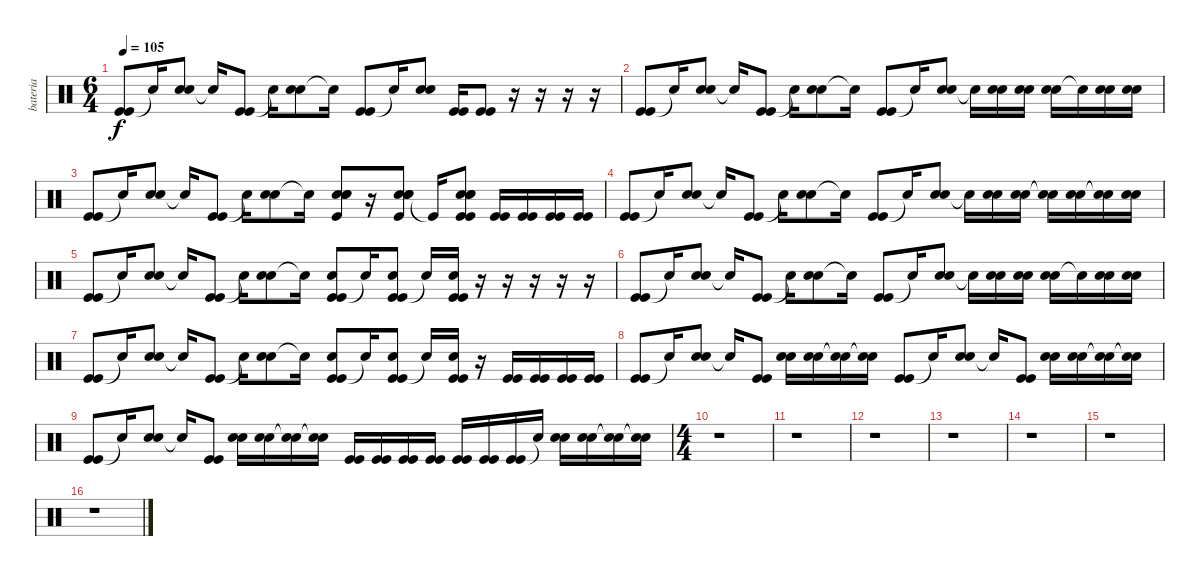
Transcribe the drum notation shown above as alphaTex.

\track ("bateria" "bateria") {instrument percussion}
\staff {score}
\articulation defaults
\ts (6 4)
\tempo 105
\clef neutral
\ks c
("Kick (hit)" "Kick (hit)").8{dy f} "Snare (hit)"{t}.16 ("Snare (hit) 2" "Snare (hit) 2").8 "Snare (hit)"{t}.16 ("Kick (hit)" "Kick (hit)").8 "Snare (hit)"{t}.16 ("Snare (hit) 2" "Snare (hit) 2").8 "Snare (hit)"{t}.16 ("Kick (hit)" "Kick (hit)").8 "Snare (hit)"{t}.16 ("Snare (hit) 2" "Snare (hit) 2").8 ("Kick (hit)" "Kick (hit)").16 ("Kick (hit)" "Kick (hit)").8 r.16 r.16 r.16 r.16 |
("Kick (hit)" "Kick (hit)").8 "Snare (hit)"{t}.16 ("Snare (hit) 2" "Snare (hit) 2").8 "Snare (hit)"{t}.16 ("Kick (hit)" "Kick (hit)").8 "Snare (hit)"{t}.16 ("Snare (hit) 2" "Snare (hit) 2").8 "Snare (hit)"{t}.16 ("Kick (hit)" "Kick (hit)").8 "Snare (hit)"{t}.16 ("Snare (hit) 2" "Snare (hit) 2").8 "Snare (hit)"{t}.16 ("Snare (hit) 2" "Snare (hit) 2").16 ("Snare (hit) 2" "Snare (hit) 2").16 ("Snare (hit) 2" "Snare (hit) 2").16 "Snare (hit)"{t}.16 ("Snare (hit) 2" "Snare (hit) 2").16 ("Snare (hit) 2" "Snare (hit) 2").16 |
("Kick (hit)" "Kick (hit)").8 "Snare (hit)"{t}.16 ("Snare (hit) 2" "Snare (hit) 2").8 "Snare (hit)"{t}.16 ("Kick (hit)" "Kick (hit)").8 "Snare (hit)"{t}.16 ("Snare (hit) 2" "Snare (hit) 2").8 "Snare (hit)"{t}.16 ("Snare (hit) 2" "Snare (hit) 2" "Kick (hit)" "Snare (hit) 2").8 r.16 ("Snare (hit) 2" "Snare (hit) 2" "Kick (hit)" "Snare (hit) 2").8 "Kick (hit)"{t}.16 ("Snare (hit) 2" "Snare (hit) 2" "Kick (hit)" "Kick (hit)" "Snare (hit) 2").8 ("Kick (hit)" "Kick (hit)").16 ("Kick (hit)" "Kick (hit)").16 ("Kick (hit)" "Kick (hit)").16 ("Kick (hit)" "Kick (hit)").16 |
("Kick (hit)" "Kick (hit)").8 "Snare (hit)"{t}.16 ("Snare (hit) 2" "Snare (hit) 2").8 "Snare (hit)"{t}.16 ("Kick (hit)" "Kick (hit)").8 "Snare (hit)"{t}.16 ("Snare (hit) 2" "Snare (hit) 2").8 "Snare (hit)"{t}.16 ("Kick (hit)" "Kick (hit)").8 "Snare (hit)"{t}.16 ("Snare (hit) 2" "Snare (hit) 2").8 "Snare (hit)"{t}.16 ("Snare (hit) 2" "Snare (hit) 2").16 ("Snare (hit) 2" "Snare (hit) 2").16 ("Snare (hit) 2"{t} "Snare (hit) 2"{t}).16 ("Snare (hit) 2" "Snare (hit) 2").16 ("Snare (hit) 2"{t} "Snare (hit) 2"{t}).16 ("Snare (hit) 2" "Snare (hit) 2").16 |
("Kick (hit)" "Kick (hit)").8 "Snare (hit)"{t}.16 ("Snare (hit) 2" "Snare (hit) 2").8 "Snare (hit)"{t}.16 ("Kick (hit)" "Kick (hit)").8 "Snare (hit)"{t}.16 ("Snare (hit) 2" "Snare (hit) 2").8 "Snare (hit)"{t}.16 ("Kick (hit)" "Kick (hit)" "Snare (hit) 2").8 "Snare (hit)"{t}.16 ("Kick (hit)" "Kick (hit)" "Snare (hit) 2").8 "Snare (hit)"{t}.16 ("Kick (hit)" "Kick (hit)" "Snare (hit) 2").16 r.16 r.16 r.16 r.16 r.16 |
("Kick (hit)" "Kick (hit)").8 "Snare (hit)"{t}.16 ("Snare (hit) 2" "Snare (hit) 2").8 "Snare (hit)"{t}.16 ("Kick (hit)" "Kick (hit)").8 "Snare (hit)"{t}.16 ("Snare (hit) 2" "Snare (hit) 2").8 "Snare (hit)"{t}.16 ("Kick (hit)" "Kick (hit)").8 "Snare (hit)"{t}.16 ("Snare (hit) 2" "Snare (hit) 2").8 "Snare (hit)"{t}.16 ("Snare (hit) 2" "Snare (hit) 2").16 ("Snare (hit) 2" "Snare (hit) 2").16 ("Snare (hit) 2" "Snare (hit) 2").16 "Snare (hit)"{t}.16 ("Snare (hit) 2" "Snare (hit) 2").16 ("Snare (hit) 2" "Snare (hit) 2").16 |
("Kick (hit)" "Kick (hit)").8 "Snare (hit)"{t}.16 ("Snare (hit) 2" "Snare (hit) 2").8 "Snare (hit)"{t}.16 ("Kick (hit)" "Kick (hit)").8 "Snare (hit)"{t}.16 ("Snare (hit) 2" "Snare (hit) 2").8 "Snare (hit)"{t}.16 ("Kick (hit)" "Kick (hit)" "Snare (hit) 2").8 "Snare (hit)"{t}.16 ("Kick (hit)" "Kick (hit)" "Snare (hit) 2").8 "Snare (hit)"{t}.16 ("Kick (hit)" "Kick (hit)" "Snare (hit) 2").16 r.16 ("Kick (hit)" "Kick (hit)").16 ("Kick (hit)" "Kick (hit)").16 ("Kick (hit)" "Kick (hit)").16 ("Kick (hit)" "Kick (hit)").16 |
("Kick (hit)" "Kick (hit)").8 "Snare (hit)"{t}.16 ("Snare (hit) 2" "Snare (hit) 2").8 "Snare (hit)"{t}.16 ("Kick (hit)" "Kick (hit)").8 ("Snare (hit) 2" "Snare (hit) 2").16 ("Snare (hit) 2" "Snare (hit) 2").16 ("Snare (hit)"{t} "Snare (hit)"{t}).16 ("Snare (hit)"{t} "Snare (hit)"{t}).16 ("Kick (hit)" "Kick (hit)").8 "Snare (hit)"{t}.16 ("Snare (hit) 2" "Snare (hit) 2").8 "Snare (hit)"{t}.16 ("Kick (hit)" "Kick (hit)").8 ("Snare (hit) 2" "Snare (hit) 2").16 ("Snare (hit) 2" "Snare (hit) 2").16 ("Snare (hit) 2"{t} "Snare (hit) 2"{t}).16 ("Snare (hit)"{t} "Snare (hit)"{t}).16 |
("Kick (hit)" "Kick (hit)").8 "Snare (hit)"{t}.16 ("Snare (hit) 2" "Snare (hit) 2").8 "Snare (hit)"{t}.16 ("Kick (hit)" "Kick (hit)").8 ("Snare (hit) 2" "Snare (hit) 2").16 ("Snare (hit) 2" "Snare (hit) 2").16 ("Snare (hit)"{t} "Snare (hit)"{t}).16 ("Snare (hit)"{t} "Snare (hit)"{t}).16 ("Kick (hit)" "Kick (hit)").16 ("Kick (hit)" "Kick (hit)").16 ("Kick (hit)" "Kick (hit)").16 ("Kick (hit)" "Kick (hit)").16 ("Kick (hit)" "Kick (hit)").16 ("Kick (hit)" "Kick (hit)").16 ("Kick (hit)" "Kick (hit)").16 "Snare (hit)"{t}.16 ("Snare (hit) 2" "Snare (hit) 2").16 ("Snare (hit) 2" "Snare (hit) 2").16 ("Snare (hit)"{t} "Snare (hit)"{t}).16 ("Snare (hit)"{t} "Snare (hit)"{t}).16 |
\ts (4 4)
r.1 |
r.1 |
r.1 |
r.1 |
r.1 |
r.1 |
r.1
